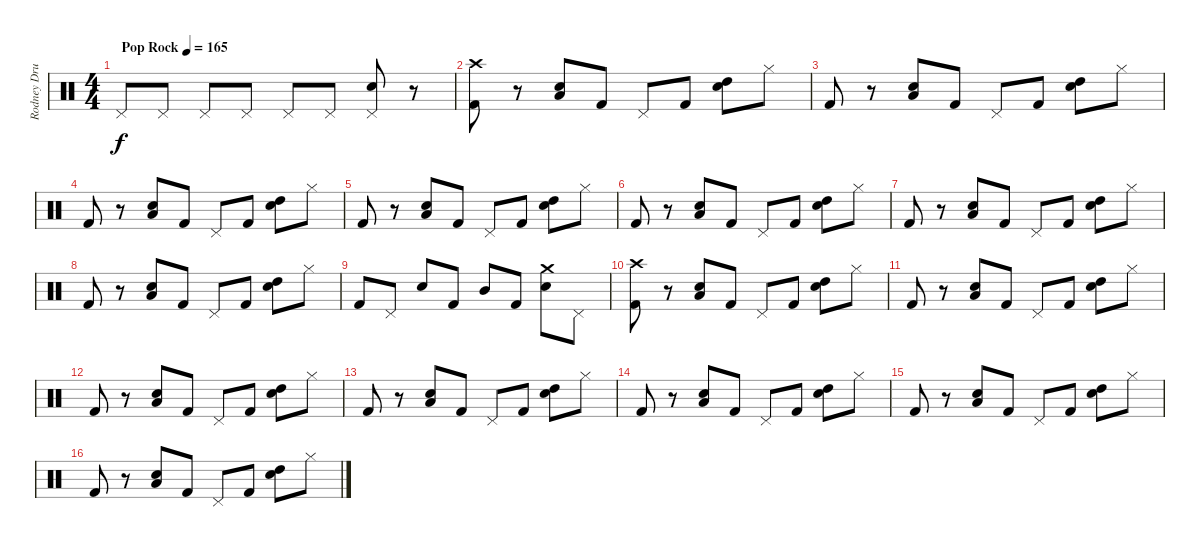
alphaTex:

\track ("Rodney Drums" "Rodney Dru") {instrument percussion}
\staff {score}
\articulation defaults
\ts (4 4)
\tempo (165 "Pop Rock")
\clef neutral
\ks c "Pedal Hi-Hat (hit)".8{dy f} "Pedal Hi-Hat (hit)".8 "Pedal Hi-Hat (hit)".8 "Pedal Hi-Hat (hit)".8 "Pedal Hi-Hat (hit)".8 "Pedal Hi-Hat (hit)".8
("Electric Snare (hit)" "Pedal Hi-Hat (hit)").8 r.8 |
("Kick (hit) 2" "Crash high (hit)").8 r.8 ("Low Tom (hit)" "Electric Snare (hit)").8 "Kick (hit) 2".8 "Pedal Hi-Hat (hit)".8 "Kick (hit) 2".8 ("High Tom (hit)" "Electric Snare (hit)").8 "Hi-Hat (closed)".8 |
"Kick (hit) 2".8 r.8 ("Low Tom (hit)" "Electric Snare (hit)").8 "Kick (hit) 2".8 "Pedal Hi-Hat (hit)".8 "Kick (hit) 2".8 ("High Tom (hit)" "Electric Snare (hit)").8 "Hi-Hat (closed)".8 |
"Kick (hit) 2".8 r.8 ("Low Tom (hit)" "Electric Snare (hit)").8 "Kick (hit) 2".8 "Pedal Hi-Hat (hit)".8 "Kick (hit) 2".8 ("High Tom (hit)" "Electric Snare (hit)").8 "Hi-Hat (closed)".8 |
"Kick (hit) 2".8 r.8 ("Low Tom (hit)" "Electric Snare (hit)").8 "Kick (hit) 2".8 "Pedal Hi-Hat (hit)".8 "Kick (hit) 2".8 ("High Tom (hit)" "Electric Snare (hit)").8 "Hi-Hat (closed)".8 |
"Kick (hit) 2".8 r.8 ("Low Tom (hit)" "Electric Snare (hit)").8 "Kick (hit) 2".8 "Pedal Hi-Hat (hit)".8 "Kick (hit) 2".8 ("High Tom (hit)" "Electric Snare (hit)").8 "Hi-Hat (closed)".8 |
"Kick (hit) 2".8 r.8 ("Low Tom (hit)" "Electric Snare (hit)").8 "Kick (hit) 2".8 "Pedal Hi-Hat (hit)".8 "Kick (hit) 2".8 ("High Tom (hit)" "Electric Snare (hit)").8 "Hi-Hat (closed)".8 |
"Kick (hit) 2".8 r.8 ("Low Tom (hit)" "Electric Snare (hit)").8 "Kick (hit) 2".8 "Pedal Hi-Hat (hit)".8 "Kick (hit) 2".8 ("High Tom (hit)" "Electric Snare (hit)").8 "Hi-Hat (closed)".8 |
"Kick (hit) 2".8 "Pedal Hi-Hat (hit)".8 "Electric Snare (hit)".8 "Kick (hit) 2".8 "Mid Tom (hit)".8 "Kick (hit) 2".8 ("Electric Snare (hit)" "Crash medium (hit)").8 "Pedal Hi-Hat (hit)".8 |
("Kick (hit) 2" "Crash high (hit)").8 r.8 ("Low Tom (hit)" "Electric Snare (hit)").8 "Kick (hit) 2".8 "Pedal Hi-Hat (hit)".8 "Kick (hit) 2".8 ("High Tom (hit)" "Electric Snare (hit)").8 "Hi-Hat (closed)".8 |
"Kick (hit) 2".8 r.8 ("Low Tom (hit)" "Electric Snare (hit)").8 "Kick (hit) 2".8 "Pedal Hi-Hat (hit)".8 "Kick (hit) 2".8 ("High Tom (hit)" "Electric Snare (hit)").8 "Hi-Hat (closed)".8 |
"Kick (hit) 2".8 r.8 ("Low Tom (hit)" "Electric Snare (hit)").8 "Kick (hit) 2".8 "Pedal Hi-Hat (hit)".8 "Kick (hit) 2".8 ("High Tom (hit)" "Electric Snare (hit)").8 "Hi-Hat (closed)".8 |
"Kick (hit) 2".8 r.8 ("Low Tom (hit)" "Electric Snare (hit)").8 "Kick (hit) 2".8 "Pedal Hi-Hat (hit)".8 "Kick (hit) 2".8 ("High Tom (hit)" "Electric Snare (hit)").8 "Hi-Hat (closed)".8 |
"Kick (hit) 2".8 r.8 ("Low Tom (hit)" "Electric Snare (hit)").8 "Kick (hit) 2".8 "Pedal Hi-Hat (hit)".8 "Kick (hit) 2".8 ("High Tom (hit)" "Electric Snare (hit)").8 "Hi-Hat (closed)".8 |
"Kick (hit) 2".8 r.8 ("Low Tom (hit)" "Electric Snare (hit)").8 "Kick (hit) 2".8 "Pedal Hi-Hat (hit)".8 "Kick (hit) 2".8 ("High Tom (hit)" "Electric Snare (hit)").8 "Hi-Hat (closed)".8 |
"Kick (hit) 2".8 r.8 ("Low Tom (hit)" "Electric Snare (hit)").8 "Kick (hit) 2".8 "Pedal Hi-Hat (hit)".8 "Kick (hit) 2".8 ("High Tom (hit)" "Electric Snare (hit)").8 "Hi-Hat (closed)".8
